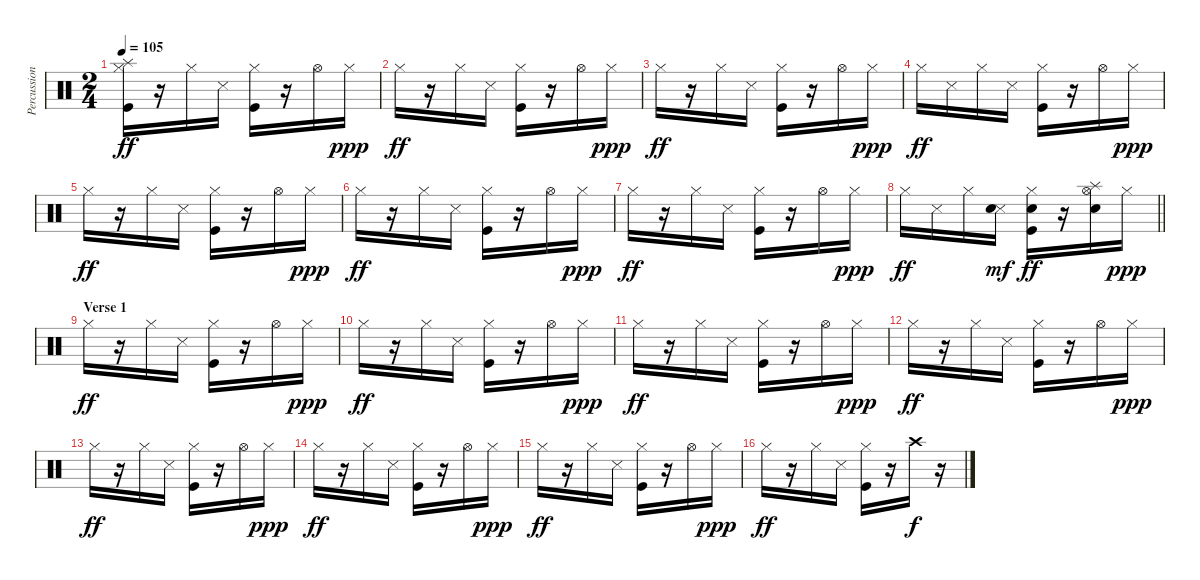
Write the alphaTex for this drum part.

\track ("Percussion" "Percussion") {instrument percussion}
\staff {score}
\articulation defaults
\ts (2 4)
\tempo 105
\clef neutral
\ks c
("Kick (hit)" "Hi-Hat (closed)" "Splash (hit)").16{dy ff} r.16 "Hi-Hat (closed)".16 "Snare (side stick) 3".16 ("Kick (hit)" "Hi-Hat (closed)").16 r.16 "Hi-Hat (open)".16 "Hi-Hat (closed)".16{dy ppp} |
"Hi-Hat (closed)".16{dy ff} r.16 "Hi-Hat (closed)".16 "Snare (side stick) 3".16 ("Kick (hit)" "Hi-Hat (closed)").16 r.16 "Hi-Hat (open)".16 "Hi-Hat (closed)".16{dy ppp} |
"Hi-Hat (closed)".16{dy ff} r.16 "Hi-Hat (closed)".16 "Snare (side stick) 3".16 ("Kick (hit)" "Hi-Hat (closed)").16 r.16 "Hi-Hat (open)".16 "Hi-Hat (closed)".16{dy ppp} |
"Hi-Hat (closed)".16{dy ff} "Snare (side stick) 3".16 "Hi-Hat (closed)".16 "Snare (side stick) 3".16 ("Kick (hit)" "Hi-Hat (closed)").16 r.16 "Hi-Hat (open)".16 "Hi-Hat (closed)".16{dy ppp} |
"Hi-Hat (closed)".16{dy ff} r.16 "Hi-Hat (closed)".16 "Snare (side stick) 3".16 ("Kick (hit)" "Hi-Hat (closed)").16 r.16 "Hi-Hat (open)".16 "Hi-Hat (closed)".16{dy ppp} |
"Hi-Hat (closed)".16{dy ff} r.16 "Hi-Hat (closed)".16 "Snare (side stick) 3".16 ("Kick (hit)" "Hi-Hat (closed)").16 r.16 "Hi-Hat (open)".16 "Hi-Hat (closed)".16{dy ppp} |
"Hi-Hat (closed)".16{dy ff} r.16 "Hi-Hat (closed)".16 "Snare (side stick) 3".16 ("Kick (hit)" "Hi-Hat (closed)").16 r.16 "Hi-Hat (open)".16 "Hi-Hat (closed)".16{dy ppp} |
\barLineRight lightlight "Hi-Hat (closed)".16{dy ff} "Snare (side stick) 3".16 "Hi-Hat (closed)".16
("Snare (side stick) 3" "Electric Snare (hit)").16{dy mf} ("Kick (hit)" "Hi-Hat (closed)" "Snare (hit) 2").16{dy ff} r.16 ("Hi-Hat (open)" "Splash (hit)" "Electric Snare (hit)").16 "Hi-Hat (closed)".16{dy ppp} |
\section ("" "Verse 1")
"Hi-Hat (closed)".16{dy ff} r.16 "Hi-Hat (closed)".16 "Snare (side stick) 3".16 ("Kick (hit)" "Hi-Hat (closed)").16 r.16 "Hi-Hat (open)".16 "Hi-Hat (closed)".16{dy ppp} |
"Hi-Hat (closed)".16{dy ff} r.16 "Hi-Hat (closed)".16 "Snare (side stick) 3".16 ("Kick (hit)" "Hi-Hat (closed)").16 r.16 "Hi-Hat (open)".16 "Hi-Hat (closed)".16{dy ppp} |
"Hi-Hat (closed)".16{dy ff} r.16 "Hi-Hat (closed)".16 "Snare (side stick) 3".16 ("Kick (hit)" "Hi-Hat (closed)").16 r.16 "Hi-Hat (open)".16 "Hi-Hat (closed)".16{dy ppp} |
"Hi-Hat (closed)".16{dy ff} r.16 "Hi-Hat (closed)".16 "Snare (side stick) 3".16 ("Kick (hit)" "Hi-Hat (closed)").16 r.16 "Hi-Hat (open)".16 "Hi-Hat (closed)".16{dy ppp} |
"Hi-Hat (closed)".16{dy ff} r.16 "Hi-Hat (closed)".16 "Snare (side stick) 3".16 ("Kick (hit)" "Hi-Hat (closed)").16 r.16 "Hi-Hat (open)".16 "Hi-Hat (closed)".16{dy ppp} |
"Hi-Hat (closed)".16{dy ff} r.16 "Hi-Hat (closed)".16 "Snare (side stick) 3".16 ("Kick (hit)" "Hi-Hat (closed)").16 r.16 "Hi-Hat (open)".16 "Hi-Hat (closed)".16{dy ppp} |
"Hi-Hat (closed)".16{dy ff} r.16 "Hi-Hat (closed)".16 "Snare (side stick) 3".16 ("Kick (hit)" "Hi-Hat (closed)").16 r.16 "Hi-Hat (open)".16 "Hi-Hat (closed)".16{dy ppp} |
"Hi-Hat (closed)".16{dy ff} r.16 "Hi-Hat (closed)".16 "Snare (side stick) 3".16 ("Kick (hit)" "Hi-Hat (closed)").16 r.16 "Crash high (hit)".16{dy f} r.16
